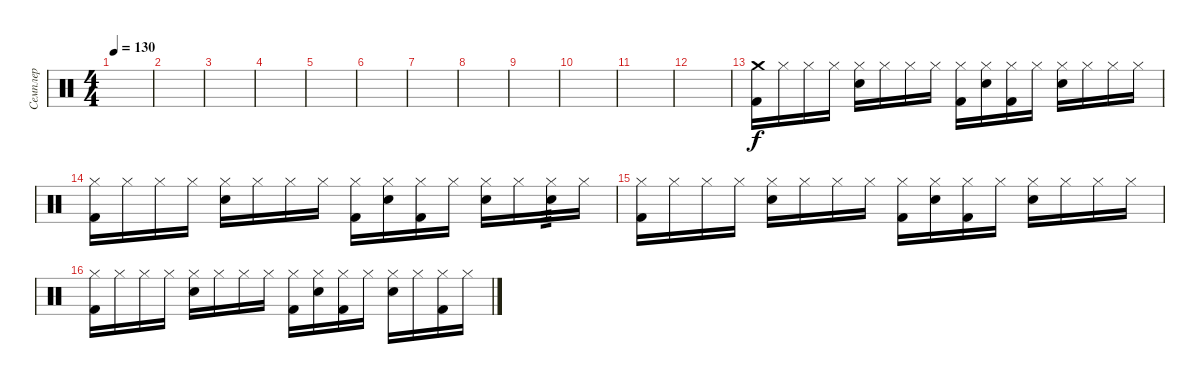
\track ("Семплер" "Семплер") {instrument percussion}
\staff {score}
\articulation defaults
\ts (4 4)
\tempo 130
\clef neutral
\ks c
|
|
|
|
|
|
|
|
|
|
|
|
("Crash medium (hit)" "Kick (hit) 2").16 "Hi-Hat (closed)".16 "Hi-Hat (closed)".16 "Hi-Hat (closed)".16 ("Hi-Hat (closed)" "Snare (hit) 2").16 "Hi-Hat (closed)".16 "Hi-Hat (closed)".16 "Hi-Hat (closed)".16 ("Hi-Hat (closed)" "Kick (hit) 2").16 ("Hi-Hat (closed)" "Snare (hit) 2").16 ("Hi-Hat (closed)" "Kick (hit) 2").16 "Hi-Hat (closed)".16 ("Hi-Hat (closed)" "Snare (hit) 2").16 "Hi-Hat (closed)".16 "Hi-Hat (closed)".16 "Hi-Hat (closed)".16 |
("Hi-Hat (closed)" "Kick (hit) 2").16 "Hi-Hat (closed)".16 "Hi-Hat (closed)".16 "Hi-Hat (closed)".16 ("Hi-Hat (closed)" "Snare (hit) 2").16 "Hi-Hat (closed)".16 "Hi-Hat (closed)".16 "Hi-Hat (closed)".16 ("Hi-Hat (closed)" "Kick (hit) 2").16 ("Hi-Hat (closed)" "Snare (hit) 2").16 ("Hi-Hat (closed)" "Kick (hit) 2").16 "Hi-Hat (closed)".16 ("Hi-Hat (closed)" "Snare (hit) 2").16 "Hi-Hat (closed)".16 ("Hi-Hat (closed)" "Snare (hit) 2").16{tp 3} "Hi-Hat (closed)".16 |
("Hi-Hat (closed)" "Kick (hit) 2").16 "Hi-Hat (closed)".16 "Hi-Hat (closed)".16 "Hi-Hat (closed)".16 ("Hi-Hat (closed)" "Snare (hit) 2").16 "Hi-Hat (closed)".16 "Hi-Hat (closed)".16 "Hi-Hat (closed)".16 ("Hi-Hat (closed)" "Kick (hit) 2").16 ("Hi-Hat (closed)" "Snare (hit) 2").16 ("Hi-Hat (closed)" "Kick (hit) 2").16 "Hi-Hat (closed)".16 ("Hi-Hat (closed)" "Snare (hit) 2").16 "Hi-Hat (closed)".16 "Hi-Hat (closed)".16 "Hi-Hat (closed)".16 |
("Hi-Hat (closed)" "Kick (hit) 2").16 "Hi-Hat (closed)".16 "Hi-Hat (closed)".16 "Hi-Hat (closed)".16 ("Hi-Hat (closed)" "Snare (hit) 2").16 "Hi-Hat (closed)".16 "Hi-Hat (closed)".16 "Hi-Hat (closed)".16 ("Hi-Hat (closed)" "Kick (hit) 2").16 ("Hi-Hat (closed)" "Snare (hit) 2").16 ("Hi-Hat (closed)" "Kick (hit) 2").16 "Hi-Hat (closed)".16 ("Hi-Hat (closed)" "Snare (hit) 2").16 "Hi-Hat (closed)".16 ("Hi-Hat (closed)" "Kick (hit) 2").16 "Hi-Hat (closed)".16
